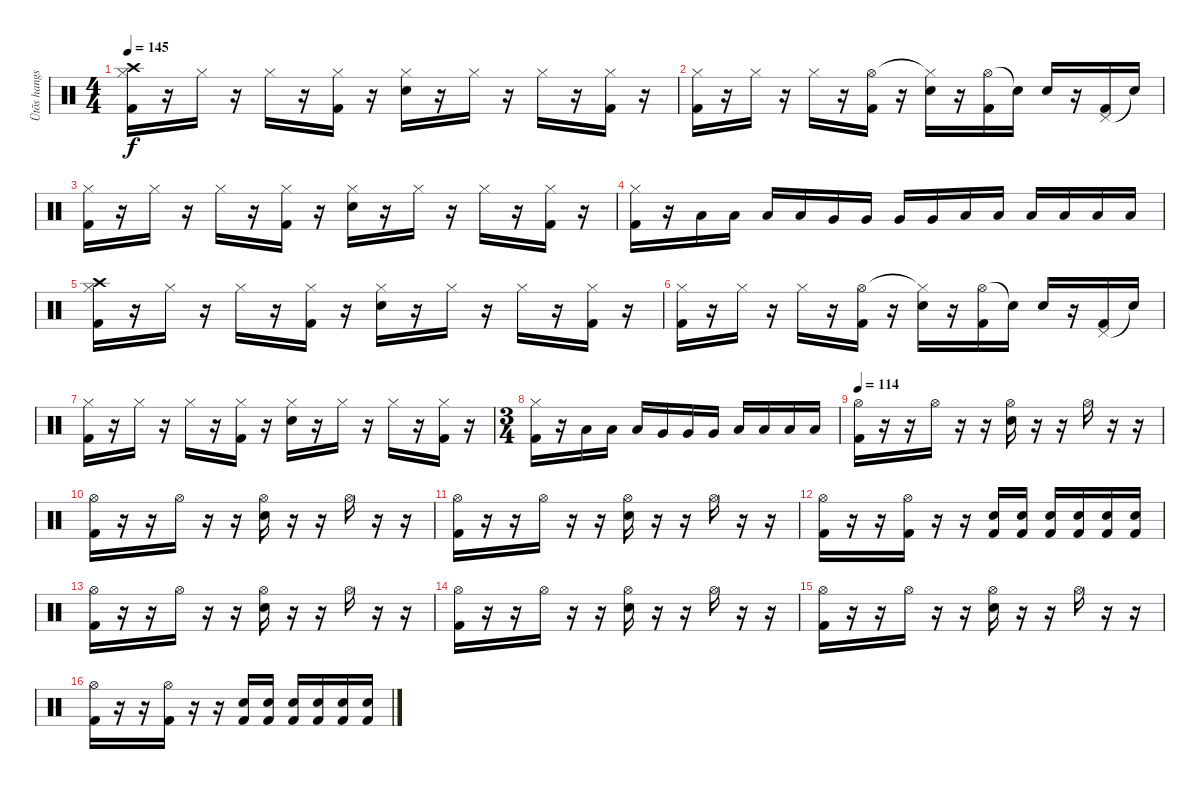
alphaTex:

\track ("Ütõs hangszer" "Ütõs hangs") {instrument percussion}
\staff {score}
\articulation defaults
\ts (4 4)
\tempo 145
\clef neutral
\ks c
("Hi-Hat (closed)" "Crash high (hit)" "Kick (hit) 2").16{dy f} r.16 "Hi-Hat (closed)".16 r.16 "Hi-Hat (closed)".16 r.16 ("Hi-Hat (closed)" "Kick (hit) 2").16 r.16 ("Hi-Hat (closed)" "Snare (hit) 2").16 r.16 "Hi-Hat (closed)".16 r.16 "Hi-Hat (closed)".16 r.16 ("Hi-Hat (closed)" "Kick (hit) 2").16 r.16 |
("Hi-Hat (closed)" "Kick (hit) 2").16 r.16 "Hi-Hat (closed)".16 r.16 "Hi-Hat (closed)".16 r.16 ("Hi-Hat (open)" "Kick (hit) 2").16 r.16 ("Hi-Hat (closed)"{t} "Snare (hit) 2").16 r.16 ("Hi-Hat (open)" "Kick (hit) 2").16 "Snare (hit)"{t}.16 "Snare (hit) 2".16 r.16 ("Pedal Hi-Hat (hit)" "Kick (hit) 2").16 "Snare (hit)"{t}.16 |
("Hi-Hat (closed)" "Kick (hit) 2").16 r.16 "Hi-Hat (closed)".16 r.16 "Hi-Hat (closed)".16 r.16 ("Hi-Hat (closed)" "Kick (hit) 2").16 r.16 ("Hi-Hat (closed)" "Snare (hit) 2").16 r.16 "Hi-Hat (closed)".16 r.16 "Hi-Hat (closed)".16 r.16 ("Hi-Hat (closed)" "Kick (hit) 2").16 r.16 |
("Hi-Hat (closed)" "Kick (hit) 2").16 r.16 "Low Tom (hit)".16 "Low Tom (hit)".16 "Low Tom (hit)".16 "Low Tom (hit)".16 "Very Low Tom (hit)".16 "Very Low Tom (hit)".16 "Very Low Tom (hit)".16 "Very Low Tom (hit)".16 "Low Floor Tom (hit)".16 "Low Floor Tom (hit)".16 "Low Floor Tom (hit)".16 "Low Floor Tom (hit)".16 "Low Floor Tom (hit)".16 "Low Floor Tom (hit)".16 |
("Hi-Hat (closed)" "Crash high (hit)" "Kick (hit) 2").16 r.16 "Hi-Hat (closed)".16 r.16 "Hi-Hat (closed)".16 r.16 ("Hi-Hat (closed)" "Kick (hit) 2").16 r.16 ("Hi-Hat (closed)" "Snare (hit) 2").16 r.16 "Hi-Hat (closed)".16 r.16 "Hi-Hat (closed)".16 r.16 ("Hi-Hat (closed)" "Kick (hit) 2").16 r.16 |
("Hi-Hat (closed)" "Kick (hit) 2").16 r.16 "Hi-Hat (closed)".16 r.16 "Hi-Hat (closed)".16 r.16 ("Hi-Hat (open)" "Kick (hit) 2").16 r.16 ("Hi-Hat (closed)"{t} "Snare (hit) 2").16 r.16 ("Hi-Hat (open)" "Kick (hit) 2").16 "Snare (hit)"{t}.16 "Snare (hit) 2".16 r.16 ("Pedal Hi-Hat (hit)" "Kick (hit) 2").16 "Snare (hit)"{t}.16 |
("Hi-Hat (closed)" "Kick (hit) 2").16 r.16 "Hi-Hat (closed)".16 r.16 "Hi-Hat (closed)".16 r.16 ("Hi-Hat (closed)" "Kick (hit) 2").16 r.16 ("Hi-Hat (closed)" "Snare (hit) 2").16 r.16 "Hi-Hat (closed)".16 r.16 "Hi-Hat (closed)".16 r.16 ("Hi-Hat (closed)" "Kick (hit) 2").16 r.16 |
\ts (3 4)
("Hi-Hat (closed)" "Kick (hit) 2").16 r.16 "Low Tom (hit)".16 "Low Tom (hit)".16 "Low Tom (hit)".16 "Very Low Tom (hit)".16 "Very Low Tom (hit)".16 "Very Low Tom (hit)".16 "Low Floor Tom (hit)".16 "Low Floor Tom (hit)".16 "Low Floor Tom (hit)".16 "Low Floor Tom (hit)".16 |
\tempo 114
("Hi-Hat (open)" "Kick (hit) 2").16 r.16 r.16 "Hi-Hat (open)".16 r.16 r.16 ("Hi-Hat (open)" "Snare (hit) 2").16 r.16 r.16 "Hi-Hat (open)".16 r.16 r.16 |
("Hi-Hat (open)" "Kick (hit) 2").16 r.16 r.16 "Hi-Hat (open)".16 r.16 r.16 ("Hi-Hat (open)" "Snare (hit) 2").16 r.16 r.16 "Hi-Hat (open)".16 r.16 r.16 |
("Hi-Hat (open)" "Kick (hit) 2").16 r.16 r.16 "Hi-Hat (open)".16 r.16 r.16 ("Hi-Hat (open)" "Snare (hit) 2").16 r.16 r.16 "Hi-Hat (open)".16 r.16 r.16 |
("Hi-Hat (open)" "Kick (hit) 2").16 r.16 r.16 ("Hi-Hat (open)" "Kick (hit) 2").16 r.16 r.16 ("Kick (hit) 2" "Snare (hit) 2").16 ("Snare (hit) 2" "Kick (hit) 2").16 ("Kick (hit) 2" "Snare (hit) 2").16 ("Snare (hit) 2" "Kick (hit) 2").16 ("Kick (hit) 2" "Snare (hit) 2").16 ("Kick (hit) 2" "Snare (hit) 2").16 |
("Hi-Hat (open)" "Kick (hit) 2").16 r.16 r.16 "Hi-Hat (open)".16 r.16 r.16 ("Hi-Hat (open)" "Snare (hit) 2").16 r.16 r.16 "Hi-Hat (open)".16 r.16 r.16 |
("Hi-Hat (open)" "Kick (hit) 2").16 r.16 r.16 "Hi-Hat (open)".16 r.16 r.16 ("Hi-Hat (open)" "Snare (hit) 2").16 r.16 r.16 "Hi-Hat (open)".16 r.16 r.16 |
("Hi-Hat (open)" "Kick (hit) 2").16 r.16 r.16 "Hi-Hat (open)".16 r.16 r.16 ("Hi-Hat (open)" "Snare (hit) 2").16 r.16 r.16 "Hi-Hat (open)".16 r.16 r.16 |
("Hi-Hat (open)" "Kick (hit) 2").16 r.16 r.16 ("Hi-Hat (open)" "Kick (hit) 2").16 r.16 r.16 ("Kick (hit) 2" "Snare (hit) 2").16 ("Snare (hit) 2" "Kick (hit) 2").16 ("Kick (hit) 2" "Snare (hit) 2").16 ("Snare (hit) 2" "Kick (hit) 2").16 ("Kick (hit) 2" "Snare (hit) 2").16 ("Kick (hit) 2" "Snare (hit) 2").16
